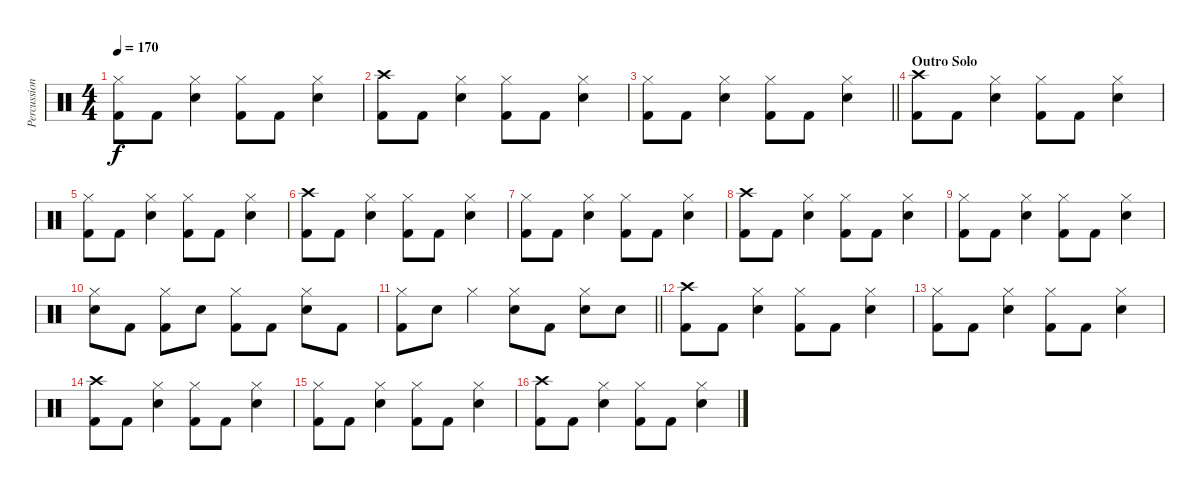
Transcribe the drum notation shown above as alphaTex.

\track ("Percussion" "Percussion") {instrument percussion}
\staff {score}
\articulation defaults
\ts (4 4)
\tempo 170
\clef neutral
\ks c
("Hi-Hat (closed)" "Kick (hit) 2").8{dy f} "Kick (hit) 2".8 ("Hi-Hat (closed)" "Electric Snare (hit)").4 ("Hi-Hat (closed)" "Kick (hit) 2").8 "Kick (hit) 2".8 ("Hi-Hat (closed)" "Electric Snare (hit)").4 |
("Crash high (hit)" "Kick (hit) 2").8 "Kick (hit) 2".8 ("Hi-Hat (closed)" "Electric Snare (hit)").4 ("Hi-Hat (closed)" "Kick (hit) 2").8 "Kick (hit) 2".8 ("Hi-Hat (closed)" "Electric Snare (hit)").4 |
\barLineRight lightlight
("Hi-Hat (closed)" "Kick (hit) 2").8 "Kick (hit) 2".8 ("Hi-Hat (closed)" "Electric Snare (hit)").4 ("Hi-Hat (closed)" "Kick (hit) 2").8 "Kick (hit) 2".8 ("Hi-Hat (closed)" "Electric Snare (hit)").4 |
\section ("" "Outro Solo")
("Crash high (hit)" "Kick (hit) 2").8 "Kick (hit) 2".8 ("Hi-Hat (closed)" "Electric Snare (hit)").4 ("Hi-Hat (closed)" "Kick (hit) 2").8 "Kick (hit) 2".8 ("Hi-Hat (closed)" "Electric Snare (hit)").4 |
("Hi-Hat (closed)" "Kick (hit) 2").8 "Kick (hit) 2".8 ("Hi-Hat (closed)" "Electric Snare (hit)").4 ("Hi-Hat (closed)" "Kick (hit) 2").8 "Kick (hit) 2".8 ("Hi-Hat (closed)" "Electric Snare (hit)").4 |
("Crash high (hit)" "Kick (hit) 2").8 "Kick (hit) 2".8 ("Hi-Hat (closed)" "Electric Snare (hit)").4 ("Hi-Hat (closed)" "Kick (hit) 2").8 "Kick (hit) 2".8 ("Hi-Hat (closed)" "Electric Snare (hit)").4 |
("Hi-Hat (closed)" "Kick (hit) 2").8 "Kick (hit) 2".8 ("Hi-Hat (closed)" "Electric Snare (hit)").4 ("Hi-Hat (closed)" "Kick (hit) 2").8 "Kick (hit) 2".8 ("Hi-Hat (closed)" "Electric Snare (hit)").4 |
("Crash high (hit)" "Kick (hit) 2").8 "Kick (hit) 2".8 ("Hi-Hat (closed)" "Electric Snare (hit)").4 ("Hi-Hat (closed)" "Kick (hit) 2").8 "Kick (hit) 2".8 ("Hi-Hat (closed)" "Electric Snare (hit)").4 |
("Hi-Hat (closed)" "Kick (hit) 2").8 "Kick (hit) 2".8 ("Hi-Hat (closed)" "Electric Snare (hit)").4 ("Hi-Hat (closed)" "Kick (hit) 2").8 "Kick (hit) 2".8 ("Hi-Hat (closed)" "Electric Snare (hit)").4 |
("Hi-Hat (closed)" "Electric Snare (hit)").8 "Kick (hit) 2".8 ("Hi-Hat (closed)" "Kick (hit) 2").8 "Electric Snare (hit)".8 ("Hi-Hat (closed)" "Kick (hit) 2").8 "Kick (hit) 2".8 ("Hi-Hat (closed)" "Electric Snare (hit)").8 "Kick (hit) 2".8 |
\barLineRight lightlight
("Hi-Hat (closed)" "Kick (hit) 2").8 "Electric Snare (hit)".8 "Hi-Hat (closed)".4 ("Hi-Hat (closed)" "Electric Snare (hit)").8 "Kick (hit) 2".8 ("Hi-Hat (closed)" "Electric Snare (hit)").8 "Electric Snare (hit)".8 |
("Crash high (hit)" "Kick (hit) 2").8 "Kick (hit) 2".8 ("Hi-Hat (closed)" "Electric Snare (hit)").4 ("Hi-Hat (closed)" "Kick (hit) 2").8 "Kick (hit) 2".8 ("Hi-Hat (closed)" "Electric Snare (hit)").4 |
("Hi-Hat (closed)" "Kick (hit) 2").8 "Kick (hit) 2".8 ("Hi-Hat (closed)" "Electric Snare (hit)").4 ("Hi-Hat (closed)" "Kick (hit) 2").8 "Kick (hit) 2".8 ("Hi-Hat (closed)" "Electric Snare (hit)").4 |
("Crash high (hit)" "Kick (hit) 2").8 "Kick (hit) 2".8 ("Hi-Hat (closed)" "Electric Snare (hit)").4 ("Hi-Hat (closed)" "Kick (hit) 2").8 "Kick (hit) 2".8 ("Hi-Hat (closed)" "Electric Snare (hit)").4 |
("Hi-Hat (closed)" "Kick (hit) 2").8 "Kick (hit) 2".8 ("Hi-Hat (closed)" "Electric Snare (hit)").4 ("Hi-Hat (closed)" "Kick (hit) 2").8 "Kick (hit) 2".8 ("Hi-Hat (closed)" "Electric Snare (hit)").4 |
("Crash high (hit)" "Kick (hit) 2").8 "Kick (hit) 2".8 ("Hi-Hat (closed)" "Electric Snare (hit)").4 ("Hi-Hat (closed)" "Kick (hit) 2").8 "Kick (hit) 2".8 ("Hi-Hat (closed)" "Electric Snare (hit)").4
